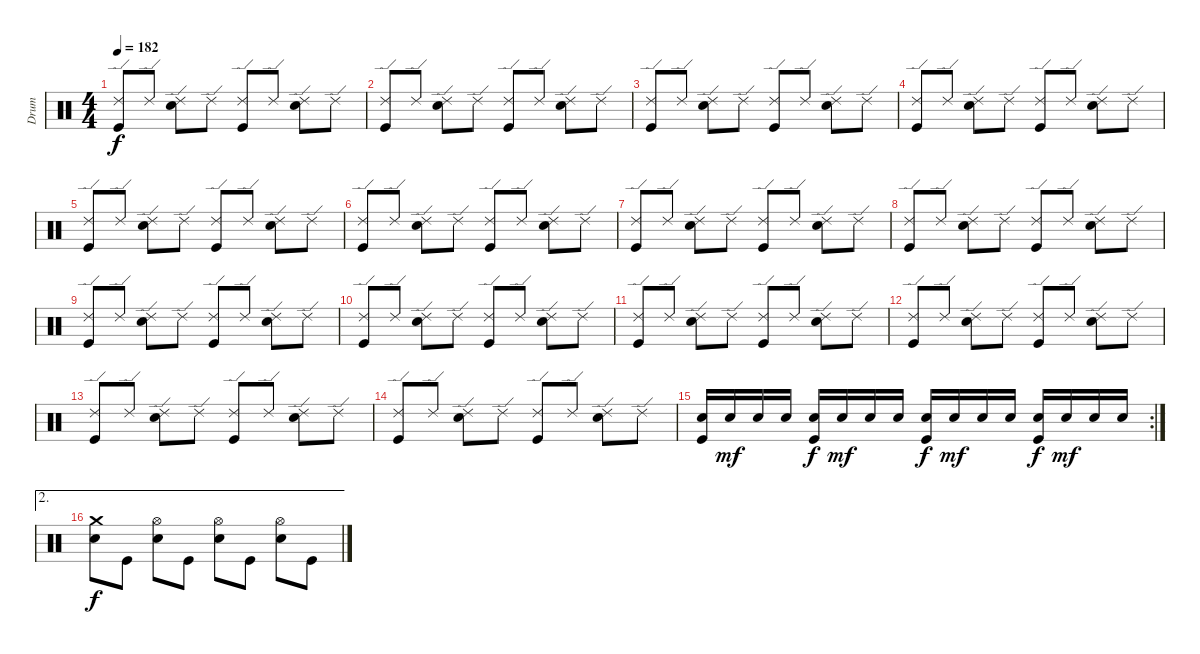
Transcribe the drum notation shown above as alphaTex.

\track ("Drum" "Drum") {instrument percussion}
\staff {score}
\articulation defaults
\ts (4 4)
\tempo 182
\clef neutral
\ks c
("Ride (edge) 2" "Kick (hit)").8{dy f} "Ride (edge) 2".8 ("Ride (edge) 2" "Snare (hit) 2").8 "Ride (edge) 2".8 ("Ride (edge) 2" "Kick (hit)").8 "Ride (edge) 2".8 ("Ride (edge) 2" "Snare (hit) 2").8 "Ride (edge) 2".8 |
("Ride (edge) 2" "Kick (hit)").8 "Ride (edge) 2".8 ("Ride (edge) 2" "Snare (hit) 2").8 "Ride (edge) 2".8 ("Ride (edge) 2" "Kick (hit)").8 "Ride (edge) 2".8 ("Ride (edge) 2" "Snare (hit) 2").8 "Ride (edge) 2".8 |
("Ride (edge) 2" "Kick (hit)").8 "Ride (edge) 2".8 ("Ride (edge) 2" "Snare (hit) 2").8 "Ride (edge) 2".8 ("Ride (edge) 2" "Kick (hit)").8 "Ride (edge) 2".8 ("Ride (edge) 2" "Snare (hit) 2").8 "Ride (edge) 2".8 |
("Ride (edge) 2" "Kick (hit)").8 "Ride (edge) 2".8 ("Ride (edge) 2" "Snare (hit) 2").8 "Ride (edge) 2".8 ("Ride (edge) 2" "Kick (hit)").8 "Ride (edge) 2".8 ("Ride (edge) 2" "Snare (hit) 2").8 "Ride (edge) 2".8 |
("Ride (edge) 2" "Kick (hit)").8 "Ride (edge) 2".8 ("Ride (edge) 2" "Snare (hit) 2").8 "Ride (edge) 2".8 ("Ride (edge) 2" "Kick (hit)").8 "Ride (edge) 2".8 ("Ride (edge) 2" "Snare (hit) 2").8 "Ride (edge) 2".8 |
("Ride (edge) 2" "Kick (hit)").8 "Ride (edge) 2".8 ("Ride (edge) 2" "Snare (hit) 2").8 "Ride (edge) 2".8 ("Ride (edge) 2" "Kick (hit)").8 "Ride (edge) 2".8 ("Ride (edge) 2" "Snare (hit) 2").8 "Ride (edge) 2".8 |
("Ride (edge) 2" "Kick (hit)").8 "Ride (edge) 2".8 ("Ride (edge) 2" "Snare (hit) 2").8 "Ride (edge) 2".8 ("Ride (edge) 2" "Kick (hit)").8 "Ride (edge) 2".8 ("Ride (edge) 2" "Snare (hit) 2").8 "Ride (edge) 2".8 |
("Ride (edge) 2" "Kick (hit)").8 "Ride (edge) 2".8 ("Ride (edge) 2" "Snare (hit) 2").8 "Ride (edge) 2".8 ("Ride (edge) 2" "Kick (hit)").8 "Ride (edge) 2".8 ("Ride (edge) 2" "Snare (hit) 2").8 "Ride (edge) 2".8 |
("Ride (edge) 2" "Kick (hit)").8 "Ride (edge) 2".8 ("Ride (edge) 2" "Snare (hit) 2").8 "Ride (edge) 2".8 ("Ride (edge) 2" "Kick (hit)").8 "Ride (edge) 2".8 ("Ride (edge) 2" "Snare (hit) 2").8 "Ride (edge) 2".8 |
("Ride (edge) 2" "Kick (hit)").8 "Ride (edge) 2".8 ("Ride (edge) 2" "Snare (hit) 2").8 "Ride (edge) 2".8 ("Ride (edge) 2" "Kick (hit)").8 "Ride (edge) 2".8 ("Ride (edge) 2" "Snare (hit) 2").8 "Ride (edge) 2".8 |
("Ride (edge) 2" "Kick (hit)").8 "Ride (edge) 2".8 ("Ride (edge) 2" "Snare (hit) 2").8 "Ride (edge) 2".8 ("Ride (edge) 2" "Kick (hit)").8 "Ride (edge) 2".8 ("Ride (edge) 2" "Snare (hit) 2").8 "Ride (edge) 2".8 |
("Ride (edge) 2" "Kick (hit)").8 "Ride (edge) 2".8 ("Ride (edge) 2" "Snare (hit) 2").8 "Ride (edge) 2".8 ("Ride (edge) 2" "Kick (hit)").8 "Ride (edge) 2".8 ("Ride (edge) 2" "Snare (hit) 2").8 "Ride (edge) 2".8 |
("Ride (edge) 2" "Kick (hit)").8 "Ride (edge) 2".8 ("Ride (edge) 2" "Snare (hit) 2").8 "Ride (edge) 2".8 ("Ride (edge) 2" "Kick (hit)").8 "Ride (edge) 2".8 ("Ride (edge) 2" "Snare (hit) 2").8 "Ride (edge) 2".8 |
("Ride (edge) 2" "Kick (hit)").8 "Ride (edge) 2".8 ("Ride (edge) 2" "Snare (hit) 2").8 "Ride (edge) 2".8 ("Ride (edge) 2" "Kick (hit)").8 "Ride (edge) 2".8 ("Ride (edge) 2" "Snare (hit) 2").8 "Ride (edge) 2".8 |
\rc 2
("Snare (hit) 2" "Kick (hit)").16 "Snare (hit) 2".16{dy mf} "Snare (hit) 2".16 "Snare (hit) 2".16 ("Snare (hit) 2" "Kick (hit)").16{dy f} "Snare (hit) 2".16{dy mf} "Snare (hit) 2".16 "Snare (hit) 2".16 ("Snare (hit) 2" "Kick (hit)").16{dy f} "Snare (hit) 2".16{dy mf} "Snare (hit) 2".16 "Snare (hit) 2".16 ("Snare (hit) 2" "Kick (hit)").16{dy f} "Snare (hit) 2".16{dy mf} "Snare (hit) 2".16 "Snare (hit) 2".16 |
\ae 2
("Crash medium (hit)" "Snare (hit) 2").8{dy f} "Kick (hit)".8 ("Snare (hit) 2" "Hi-Hat (open)").8 "Kick (hit)".8 ("Snare (hit) 2" "Hi-Hat (open)").8 "Kick (hit)".8 ("Snare (hit) 2" "Hi-Hat (open)").8 "Kick (hit)".8
